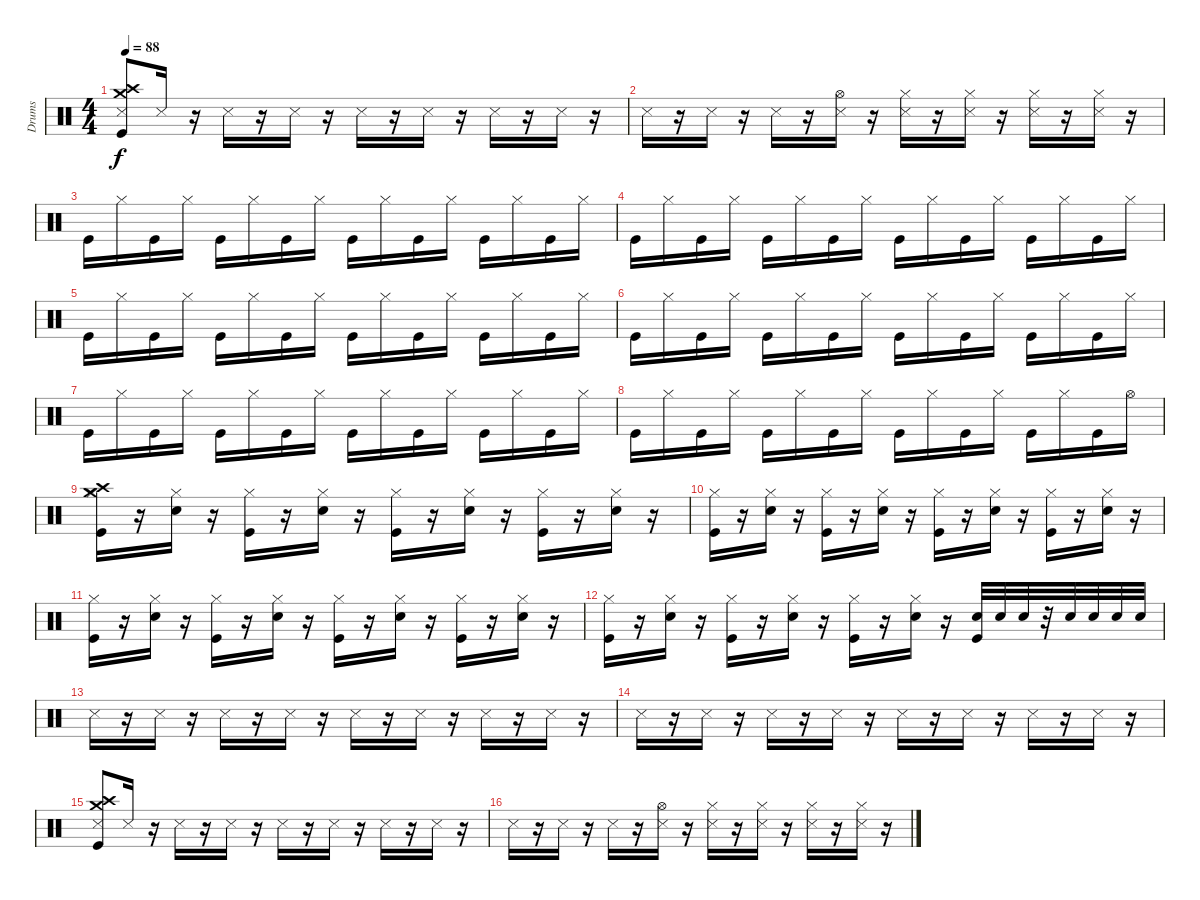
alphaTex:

\track ("Drums" "Drums") {instrument percussion}
\staff {score}
\articulation defaults
\ts (4 4)
\tempo 88
\clef neutral
\ks c
("Snare (side stick) 3" "Crash medium (hit)" "Crash high (hit)" "Kick (hit)").8{dy f} "Snare (side stick) 3".16 r.16 "Snare (side stick) 3".16 r.16 "Snare (side stick) 3".16 r.16 "Snare (side stick) 3".16 r.16 "Snare (side stick) 3".16 r.16 "Snare (side stick) 3".16 r.16 "Snare (side stick) 3".16 r.16 |
"Snare (side stick) 3".16 r.16 "Snare (side stick) 3".16 r.16 "Snare (side stick) 3".16 r.16 ("Hi-Hat (open)" "Snare (side stick) 3").16 r.16 ("Hi-Hat (closed)" "Snare (side stick) 3").16 r.16 ("Hi-Hat (closed)" "Snare (side stick) 3").16 r.16 ("Hi-Hat (closed)" "Snare (side stick) 3").16 r.16 ("Hi-Hat (closed)" "Snare (side stick) 3").16 r.16 |
"Kick (hit)".16 "Hi-Hat (closed)".16 "Kick (hit)".16 "Hi-Hat (closed)".16 "Kick (hit)".16 "Hi-Hat (closed)".16 "Kick (hit)".16 "Hi-Hat (closed)".16 "Kick (hit)".16 "Hi-Hat (closed)".16 "Kick (hit)".16 "Hi-Hat (closed)".16 "Kick (hit)".16 "Hi-Hat (closed)".16 "Kick (hit)".16 "Hi-Hat (closed)".16 |
"Kick (hit)".16 "Hi-Hat (closed)".16 "Kick (hit)".16 "Hi-Hat (closed)".16 "Kick (hit)".16 "Hi-Hat (closed)".16 "Kick (hit)".16 "Hi-Hat (closed)".16 "Kick (hit)".16 "Hi-Hat (closed)".16 "Kick (hit)".16 "Hi-Hat (closed)".16 "Kick (hit)".16 "Hi-Hat (closed)".16 "Kick (hit)".16 "Hi-Hat (closed)".16 |
"Kick (hit)".16 "Hi-Hat (closed)".16 "Kick (hit)".16 "Hi-Hat (closed)".16 "Kick (hit)".16 "Hi-Hat (closed)".16 "Kick (hit)".16 "Hi-Hat (closed)".16 "Kick (hit)".16 "Hi-Hat (closed)".16 "Kick (hit)".16 "Hi-Hat (closed)".16 "Kick (hit)".16 "Hi-Hat (closed)".16 "Kick (hit)".16 "Hi-Hat (closed)".16 |
"Kick (hit)".16 "Hi-Hat (closed)".16 "Kick (hit)".16 "Hi-Hat (closed)".16 "Kick (hit)".16 "Hi-Hat (closed)".16 "Kick (hit)".16 "Hi-Hat (closed)".16 "Kick (hit)".16 "Hi-Hat (closed)".16 "Kick (hit)".16 "Hi-Hat (closed)".16 "Kick (hit)".16 "Hi-Hat (closed)".16 "Kick (hit)".16 "Hi-Hat (closed)".16 |
"Kick (hit)".16 "Hi-Hat (closed)".16 "Kick (hit)".16 "Hi-Hat (closed)".16 "Kick (hit)".16 "Hi-Hat (closed)".16 "Kick (hit)".16 "Hi-Hat (closed)".16 "Kick (hit)".16 "Hi-Hat (closed)".16 "Kick (hit)".16 "Hi-Hat (closed)".16 "Kick (hit)".16 "Hi-Hat (closed)".16 "Kick (hit)".16 "Hi-Hat (closed)".16 |
"Kick (hit)".16 "Hi-Hat (closed)".16 "Kick (hit)".16 "Hi-Hat (closed)".16 "Kick (hit)".16 "Hi-Hat (closed)".16 "Kick (hit)".16 "Hi-Hat (closed)".16 "Kick (hit)".16 "Hi-Hat (closed)".16 "Kick (hit)".16 "Hi-Hat (closed)".16 "Kick (hit)".16 "Hi-Hat (closed)".16 "Kick (hit)".16 "Hi-Hat (open)".16 |
("Crash medium (hit)" "Kick (hit)" "Crash high (hit)" "Hi-Hat (closed)").16 r.16 ("Hi-Hat (closed)" "Snare (hit) 2").16 r.16 ("Hi-Hat (closed)" "Kick (hit)").16 r.16 ("Hi-Hat (closed)" "Snare (hit) 2").16 r.16 ("Hi-Hat (closed)" "Kick (hit)").16 r.16 ("Hi-Hat (closed)" "Snare (hit) 2").16 r.16 ("Kick (hit)" "Hi-Hat (closed)").16 r.16 ("Hi-Hat (closed)" "Snare (hit) 2").16 r.16 |
("Hi-Hat (closed)" "Kick (hit)").16 r.16 ("Hi-Hat (closed)" "Snare (hit) 2").16 r.16 ("Kick (hit)" "Hi-Hat (closed)").16 r.16 ("Hi-Hat (closed)" "Snare (hit) 2").16 r.16 ("Hi-Hat (closed)" "Kick (hit)").16 r.16 ("Snare (hit) 2" "Hi-Hat (closed)").16 r.16 ("Kick (hit)" "Hi-Hat (closed)").16 r.16 ("Snare (hit) 2" "Hi-Hat (closed)").16 r.16 |
("Hi-Hat (closed)" "Kick (hit)").16 r.16 ("Snare (hit) 2" "Hi-Hat (closed)").16 r.16 ("Hi-Hat (closed)" "Kick (hit)").16 r.16 ("Snare (hit) 2" "Hi-Hat (closed)").16 r.16 ("Hi-Hat (closed)" "Kick (hit)").16 r.16 ("Hi-Hat (closed)" "Snare (hit) 2").16 r.16 ("Hi-Hat (closed)" "Kick (hit)").16 r.16 ("Hi-Hat (closed)" "Snare (hit) 2").16 r.16 |
("Hi-Hat (closed)" "Kick (hit)").16 r.16 ("Snare (hit) 2" "Hi-Hat (closed)").16 r.16 ("Hi-Hat (closed)" "Kick (hit)").16 r.16 ("Hi-Hat (closed)" "Snare (hit) 2").16 r.16 ("Kick (hit)" "Hi-Hat (closed)").16 r.16 ("Hi-Hat (closed)" "Snare (hit) 2").16 r.16 ("Kick (hit)" "Snare (hit) 2").32 "Snare (hit) 2".32 "Snare (hit) 2".32 r.32 "Snare (hit) 2".32 "Snare (hit) 2".32 "Snare (hit) 2".32 "Snare (hit) 2".32 |
"Snare (side stick) 3".16 r.16 "Snare (side stick) 3".16 r.16 "Snare (side stick) 3".16 r.16 "Snare (side stick) 3".16 r.16 "Snare (side stick) 3".16 r.16 "Snare (side stick) 3".16 r.16 "Snare (side stick) 3".16 r.16 "Snare (side stick) 3".16 r.16 |
"Snare (side stick) 3".16 r.16 "Snare (side stick) 3".16 r.16 "Snare (side stick) 3".16 r.16 "Snare (side stick) 3".16 r.16 "Snare (side stick) 3".16 r.16 "Snare (side stick) 3".16 r.16 "Snare (side stick) 3".16 r.16 "Snare (side stick) 3".16 r.16 |
("Snare (side stick) 3" "Crash medium (hit)" "Crash high (hit)" "Kick (hit)").8 "Snare (side stick) 3".16 r.16 "Snare (side stick) 3".16 r.16 "Snare (side stick) 3".16 r.16 "Snare (side stick) 3".16 r.16 "Snare (side stick) 3".16 r.16 "Snare (side stick) 3".16 r.16 "Snare (side stick) 3".16 r.16 |
"Snare (side stick) 3".16 r.16 "Snare (side stick) 3".16 r.16 "Snare (side stick) 3".16 r.16 ("Hi-Hat (open)" "Snare (side stick) 3").16 r.16 ("Hi-Hat (closed)" "Snare (side stick) 3").16 r.16 ("Hi-Hat (closed)" "Snare (side stick) 3").16 r.16 ("Hi-Hat (closed)" "Snare (side stick) 3").16 r.16 ("Hi-Hat (closed)" "Snare (side stick) 3").16 r.16
